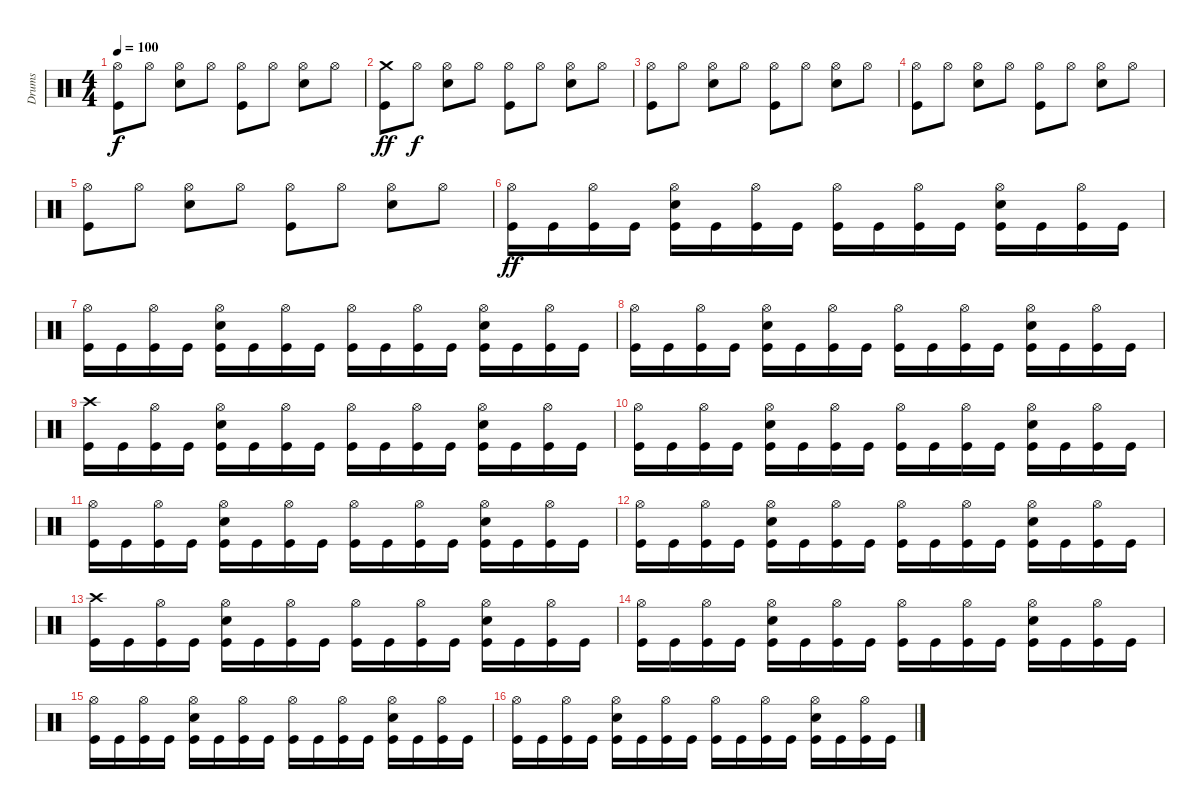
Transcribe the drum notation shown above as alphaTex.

\track ("Drums" "Drums") {instrument percussion}
\staff {score}
\articulation defaults
\ts (4 4)
\tempo 100
\clef neutral
\ks c
("Hi-Hat (open)" "Kick (hit)").8{dy f} "Hi-Hat (open)".8 ("Hi-Hat (open)" "Snare (hit) 2").8 "Hi-Hat (open)".8 ("Hi-Hat (open)" "Kick (hit)").8 "Hi-Hat (open)".8 ("Hi-Hat (open)" "Snare (hit) 2").8 "Hi-Hat (open)".8 |
("Crash medium (hit)" "Kick (hit)").8{dy ff} "Hi-Hat (open)".8{dy f} ("Hi-Hat (open)" "Snare (hit) 2").8 "Hi-Hat (open)".8 ("Hi-Hat (open)" "Kick (hit)").8 "Hi-Hat (open)".8 ("Hi-Hat (open)" "Snare (hit) 2").8 "Hi-Hat (open)".8 |
("Hi-Hat (open)" "Kick (hit)").8 "Hi-Hat (open)".8 ("Hi-Hat (open)" "Snare (hit) 2").8 "Hi-Hat (open)".8 ("Hi-Hat (open)" "Kick (hit)").8 "Hi-Hat (open)".8 ("Hi-Hat (open)" "Snare (hit) 2").8 "Hi-Hat (open)".8 |
("Hi-Hat (open)" "Kick (hit)").8 "Hi-Hat (open)".8 ("Hi-Hat (open)" "Snare (hit) 2").8 "Hi-Hat (open)".8 ("Hi-Hat (open)" "Kick (hit)").8 "Hi-Hat (open)".8 ("Hi-Hat (open)" "Snare (hit) 2").8 "Hi-Hat (open)".8 |
("Hi-Hat (open)" "Kick (hit)").8 "Hi-Hat (open)".8 ("Hi-Hat (open)" "Snare (hit) 2").8 "Hi-Hat (open)".8 ("Hi-Hat (open)" "Kick (hit)").8 "Hi-Hat (open)".8 ("Hi-Hat (open)" "Snare (hit) 2").8 "Hi-Hat (open)".8 |
("Hi-Hat (open)" "Kick (hit)").16{dy ff} "Kick (hit)".16 ("Hi-Hat (open)" "Kick (hit)").16 "Kick (hit)".16 ("Hi-Hat (open)" "Snare (hit) 2" "Kick (hit)").16 "Kick (hit)".16 ("Hi-Hat (open)" "Kick (hit)").16 "Kick (hit)".16 ("Hi-Hat (open)" "Kick (hit)").16 "Kick (hit)".16 ("Hi-Hat (open)" "Kick (hit)").16 "Kick (hit)".16 ("Hi-Hat (open)" "Snare (hit) 2" "Kick (hit)").16 "Kick (hit)".16 ("Hi-Hat (open)" "Kick (hit)").16 "Kick (hit)".16 |
("Hi-Hat (open)" "Kick (hit)").16 "Kick (hit)".16 ("Hi-Hat (open)" "Kick (hit)").16 "Kick (hit)".16 ("Hi-Hat (open)" "Snare (hit) 2" "Kick (hit)").16 "Kick (hit)".16 ("Hi-Hat (open)" "Kick (hit)").16 "Kick (hit)".16 ("Hi-Hat (open)" "Kick (hit)").16 "Kick (hit)".16 ("Hi-Hat (open)" "Kick (hit)").16 "Kick (hit)".16 ("Hi-Hat (open)" "Snare (hit) 2" "Kick (hit)").16 "Kick (hit)".16 ("Hi-Hat (open)" "Kick (hit)").16 "Kick (hit)".16 |
("Hi-Hat (open)" "Kick (hit)").16 "Kick (hit)".16 ("Hi-Hat (open)" "Kick (hit)").16 "Kick (hit)".16 ("Hi-Hat (open)" "Snare (hit) 2" "Kick (hit)").16 "Kick (hit)".16 ("Hi-Hat (open)" "Kick (hit)").16 "Kick (hit)".16 ("Hi-Hat (open)" "Kick (hit)").16 "Kick (hit)".16 ("Hi-Hat (open)" "Kick (hit)").16 "Kick (hit)".16 ("Hi-Hat (open)" "Snare (hit) 2" "Kick (hit)").16 "Kick (hit)".16 ("Hi-Hat (open)" "Kick (hit)").16 "Kick (hit)".16 |
("Crash high (hit)" "Kick (hit)").16 "Kick (hit)".16 ("Hi-Hat (open)" "Kick (hit)").16 "Kick (hit)".16 ("Hi-Hat (open)" "Snare (hit) 2" "Kick (hit)").16 "Kick (hit)".16 ("Hi-Hat (open)" "Kick (hit)").16 "Kick (hit)".16 ("Hi-Hat (open)" "Kick (hit)").16 "Kick (hit)".16 ("Hi-Hat (open)" "Kick (hit)").16 "Kick (hit)".16 ("Hi-Hat (open)" "Snare (hit) 2" "Kick (hit)").16 "Kick (hit)".16 ("Hi-Hat (open)" "Kick (hit)").16 "Kick (hit)".16 |
("Hi-Hat (open)" "Kick (hit)").16 "Kick (hit)".16 ("Hi-Hat (open)" "Kick (hit)").16 "Kick (hit)".16 ("Hi-Hat (open)" "Snare (hit) 2" "Kick (hit)").16 "Kick (hit)".16 ("Hi-Hat (open)" "Kick (hit)").16 "Kick (hit)".16 ("Hi-Hat (open)" "Kick (hit)").16 "Kick (hit)".16 ("Hi-Hat (open)" "Kick (hit)").16 "Kick (hit)".16 ("Hi-Hat (open)" "Snare (hit) 2" "Kick (hit)").16 "Kick (hit)".16 ("Hi-Hat (open)" "Kick (hit)").16 "Kick (hit)".16 |
("Hi-Hat (open)" "Kick (hit)").16 "Kick (hit)".16 ("Hi-Hat (open)" "Kick (hit)").16 "Kick (hit)".16 ("Hi-Hat (open)" "Snare (hit) 2" "Kick (hit)").16 "Kick (hit)".16 ("Hi-Hat (open)" "Kick (hit)").16 "Kick (hit)".16 ("Hi-Hat (open)" "Kick (hit)").16 "Kick (hit)".16 ("Hi-Hat (open)" "Kick (hit)").16 "Kick (hit)".16 ("Hi-Hat (open)" "Snare (hit) 2" "Kick (hit)").16 "Kick (hit)".16 ("Hi-Hat (open)" "Kick (hit)").16 "Kick (hit)".16 |
("Hi-Hat (open)" "Kick (hit)").16 "Kick (hit)".16 ("Hi-Hat (open)" "Kick (hit)").16 "Kick (hit)".16 ("Hi-Hat (open)" "Snare (hit) 2" "Kick (hit)").16 "Kick (hit)".16 ("Hi-Hat (open)" "Kick (hit)").16 "Kick (hit)".16 ("Hi-Hat (open)" "Kick (hit)").16 "Kick (hit)".16 ("Hi-Hat (open)" "Kick (hit)").16 "Kick (hit)".16 ("Hi-Hat (open)" "Snare (hit) 2" "Kick (hit)").16 "Kick (hit)".16 ("Hi-Hat (open)" "Kick (hit)").16 "Kick (hit)".16 |
("Crash high (hit)" "Kick (hit)").16 "Kick (hit)".16 ("Hi-Hat (open)" "Kick (hit)").16 "Kick (hit)".16 ("Hi-Hat (open)" "Snare (hit) 2" "Kick (hit)").16 "Kick (hit)".16 ("Hi-Hat (open)" "Kick (hit)").16 "Kick (hit)".16 ("Hi-Hat (open)" "Kick (hit)").16 "Kick (hit)".16 ("Hi-Hat (open)" "Kick (hit)").16 "Kick (hit)".16 ("Hi-Hat (open)" "Snare (hit) 2" "Kick (hit)").16 "Kick (hit)".16 ("Hi-Hat (open)" "Kick (hit)").16 "Kick (hit)".16 |
("Hi-Hat (open)" "Kick (hit)").16 "Kick (hit)".16 ("Hi-Hat (open)" "Kick (hit)").16 "Kick (hit)".16 ("Hi-Hat (open)" "Snare (hit) 2" "Kick (hit)").16 "Kick (hit)".16 ("Hi-Hat (open)" "Kick (hit)").16 "Kick (hit)".16 ("Hi-Hat (open)" "Kick (hit)").16 "Kick (hit)".16 ("Hi-Hat (open)" "Kick (hit)").16 "Kick (hit)".16 ("Hi-Hat (open)" "Snare (hit) 2" "Kick (hit)").16 "Kick (hit)".16 ("Hi-Hat (open)" "Kick (hit)").16 "Kick (hit)".16 |
("Hi-Hat (open)" "Kick (hit)").16 "Kick (hit)".16 ("Hi-Hat (open)" "Kick (hit)").16 "Kick (hit)".16 ("Hi-Hat (open)" "Snare (hit) 2" "Kick (hit)").16 "Kick (hit)".16 ("Hi-Hat (open)" "Kick (hit)").16 "Kick (hit)".16 ("Hi-Hat (open)" "Kick (hit)").16 "Kick (hit)".16 ("Hi-Hat (open)" "Kick (hit)").16 "Kick (hit)".16 ("Hi-Hat (open)" "Snare (hit) 2" "Kick (hit)").16 "Kick (hit)".16 ("Hi-Hat (open)" "Kick (hit)").16 "Kick (hit)".16 |
("Hi-Hat (open)" "Kick (hit)").16 "Kick (hit)".16 ("Hi-Hat (open)" "Kick (hit)").16 "Kick (hit)".16 ("Hi-Hat (open)" "Snare (hit) 2" "Kick (hit)").16 "Kick (hit)".16 ("Hi-Hat (open)" "Kick (hit)").16 "Kick (hit)".16 ("Hi-Hat (open)" "Kick (hit)").16 "Kick (hit)".16 ("Hi-Hat (open)" "Kick (hit)").16 "Kick (hit)".16 ("Hi-Hat (open)" "Snare (hit) 2" "Kick (hit)").16 "Kick (hit)".16 ("Hi-Hat (open)" "Kick (hit)").16 "Kick (hit)".16
